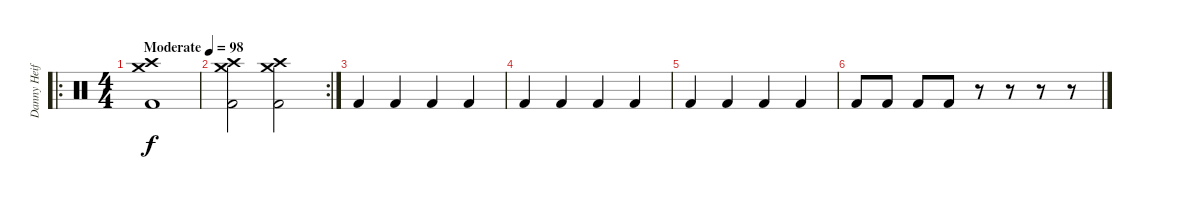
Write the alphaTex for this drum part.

\track ("Danny Heifez" "Danny Heif") {instrument percussion}
\staff {score}
\articulation defaults
\ro
\ts (4 4)
\tempo (98 "Moderate")
\clef neutral
\ks c
("Crash high (hit)" "Crash medium (hit)" "Kick (hit) 2").1{dy f} |
\rc 2
("Crash high (hit)" "Crash medium (hit)" "Kick (hit) 2").2 ("Crash high (hit)" "Crash medium (hit)" "Kick (hit) 2").2 |
"Kick (hit) 2".4 "Kick (hit) 2".4 "Kick (hit) 2".4 "Kick (hit) 2".4 |
"Kick (hit) 2".4 "Kick (hit) 2".4 "Kick (hit) 2".4 "Kick (hit) 2".4 |
"Kick (hit) 2".4 "Kick (hit) 2".4 "Kick (hit) 2".4 "Kick (hit) 2".4 |
"Kick (hit) 2".8 "Kick (hit) 2".8 "Kick (hit) 2".8 "Kick (hit) 2".8 r.8 r.8 r.8 r.8
